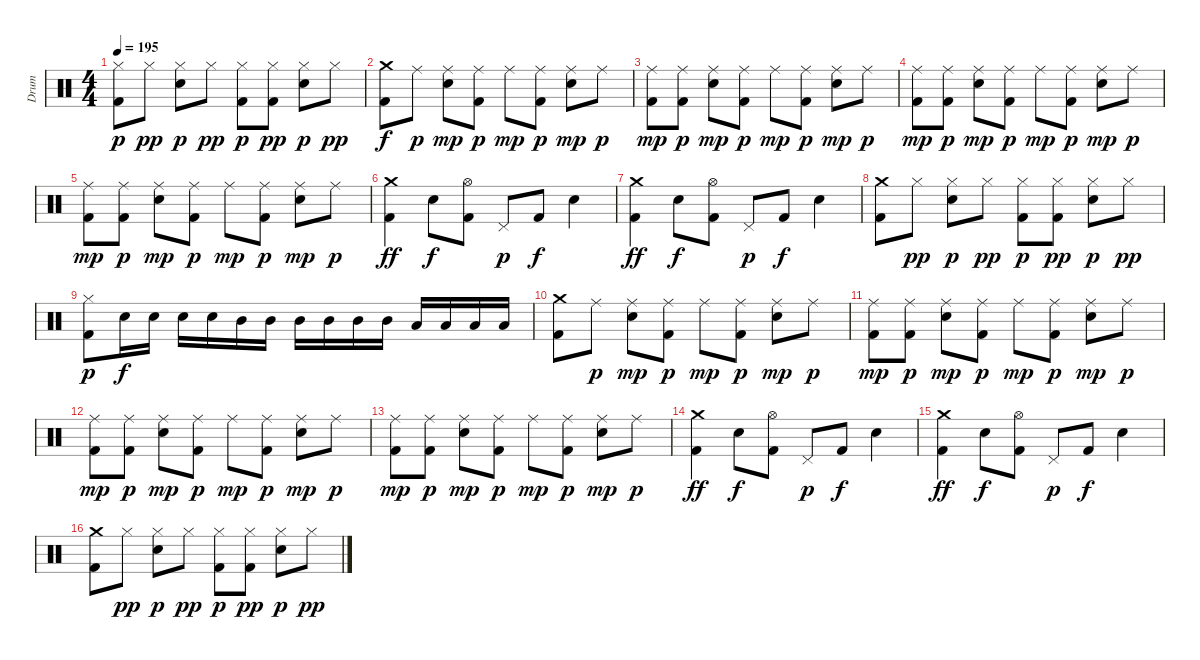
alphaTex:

\track ("Drum" "Drum") {instrument percussion}
\staff {score}
\articulation defaults
\ts (4 4)
\tempo 195
\clef neutral
\ks c
("Hi-Hat (closed)" "Kick (hit) 2").8{dy p} "Hi-Hat (closed)".8{dy pp} ("Hi-Hat (closed)" "Electric Snare (hit)").8{dy p} "Hi-Hat (closed)".8{dy pp} ("Hi-Hat (closed)" "Kick (hit) 2").8{dy p} ("Hi-Hat (closed)" "Kick (hit) 2").8{dy pp} ("Hi-Hat (closed)" "Electric Snare (hit)").8{dy p} "Hi-Hat (closed)".8{dy pp} |
("Crash medium (hit)" "Kick (hit) 2").8{dy f} "Ride (middle)".8{dy p} ("Ride (middle)" "Electric Snare (hit)").8{dy mp} ("Ride (middle)" "Kick (hit) 2").8{dy p} "Ride (middle)".8{dy mp} ("Ride (middle)" "Kick (hit) 2").8{dy p} ("Ride (middle)" "Electric Snare (hit)").8{dy mp} "Ride (middle)".8{dy p} |
("Ride (middle)" "Kick (hit) 2").8{dy mp} ("Ride (middle)" "Kick (hit) 2").8{dy p} ("Ride (middle)" "Electric Snare (hit)").8{dy mp} ("Ride (middle)" "Kick (hit) 2").8{dy p} "Ride (middle)".8{dy mp} ("Ride (middle)" "Kick (hit) 2").8{dy p} ("Ride (middle)" "Electric Snare (hit)").8{dy mp} "Ride (middle)".8{dy p} |
("Ride (middle)" "Kick (hit) 2").8{dy mp} ("Ride (middle)" "Kick (hit) 2").8{dy p} ("Ride (middle)" "Electric Snare (hit)").8{dy mp} ("Ride (middle)" "Kick (hit) 2").8{dy p} "Ride (middle)".8{dy mp} ("Ride (middle)" "Kick (hit) 2").8{dy p} ("Ride (middle)" "Electric Snare (hit)").8{dy mp} "Ride (middle)".8{dy p} |
("Ride (middle)" "Kick (hit) 2").8{dy mp} ("Ride (middle)" "Kick (hit) 2").8{dy p} ("Ride (middle)" "Electric Snare (hit)").8{dy mp} ("Ride (middle)" "Kick (hit) 2").8{dy p} "Ride (middle)".8{dy mp} ("Ride (middle)" "Kick (hit) 2").8{dy p} ("Ride (middle)" "Electric Snare (hit)").8{dy mp} "Ride (middle)".8{dy p} |
("Crash medium (hit)" "Kick (hit) 2").4{dy ff} "Electric Snare (hit)".8{dy f} ("Hi-Hat (open)" "Kick (hit) 2").8 "Pedal Hi-Hat (hit)".8{dy p} "Kick (hit) 2".8{dy f} "Electric Snare (hit)".4 |
("Crash medium (hit)" "Kick (hit) 2").4{dy ff} "Electric Snare (hit)".8{dy f} ("Hi-Hat (open)" "Kick (hit) 2").8 "Pedal Hi-Hat (hit)".8{dy p} "Kick (hit) 2".8{dy f} "Electric Snare (hit)".4 |
("Crash medium (hit)" "Kick (hit) 2").8 "Hi-Hat (closed)".8{dy pp} ("Hi-Hat (closed)" "Electric Snare (hit)").8{dy p} "Hi-Hat (closed)".8{dy pp} ("Hi-Hat (closed)" "Kick (hit) 2").8{dy p} ("Hi-Hat (closed)" "Kick (hit) 2").8{dy pp} ("Hi-Hat (closed)" "Electric Snare (hit)").8{dy p} "Hi-Hat (closed)".8{dy pp} |
("Hi-Hat (closed)" "Kick (hit) 2").8{dy p} "Electric Snare (hit)".16{dy f} "Electric Snare (hit)".16 "Electric Snare (hit)".16 "Electric Snare (hit)".16 "Mid Tom (hit)".16 "Mid Tom (hit)".16 "Mid Tom (hit)".16 "Mid Tom (hit)".16 "Mid Tom (hit)".16 "Mid Tom (hit)".16 "Low Tom (hit)".16 "Low Tom (hit)".16 "Low Tom (hit)".16 "Low Tom (hit)".16 |
("Crash medium (hit)" "Kick (hit) 2").8 "Ride (middle)".8{dy p} ("Ride (middle)" "Electric Snare (hit)").8{dy mp} ("Ride (middle)" "Kick (hit) 2").8{dy p} "Ride (middle)".8{dy mp} ("Ride (middle)" "Kick (hit) 2").8{dy p} ("Ride (middle)" "Electric Snare (hit)").8{dy mp} "Ride (middle)".8{dy p} |
("Ride (middle)" "Kick (hit) 2").8{dy mp} ("Ride (middle)" "Kick (hit) 2").8{dy p} ("Ride (middle)" "Electric Snare (hit)").8{dy mp} ("Ride (middle)" "Kick (hit) 2").8{dy p} "Ride (middle)".8{dy mp} ("Ride (middle)" "Kick (hit) 2").8{dy p} ("Ride (middle)" "Electric Snare (hit)").8{dy mp} "Ride (middle)".8{dy p} |
("Ride (middle)" "Kick (hit) 2").8{dy mp} ("Ride (middle)" "Kick (hit) 2").8{dy p} ("Ride (middle)" "Electric Snare (hit)").8{dy mp} ("Ride (middle)" "Kick (hit) 2").8{dy p} "Ride (middle)".8{dy mp} ("Ride (middle)" "Kick (hit) 2").8{dy p} ("Ride (middle)" "Electric Snare (hit)").8{dy mp} "Ride (middle)".8{dy p} |
("Ride (middle)" "Kick (hit) 2").8{dy mp} ("Ride (middle)" "Kick (hit) 2").8{dy p} ("Ride (middle)" "Electric Snare (hit)").8{dy mp} ("Ride (middle)" "Kick (hit) 2").8{dy p} "Ride (middle)".8{dy mp} ("Ride (middle)" "Kick (hit) 2").8{dy p} ("Ride (middle)" "Electric Snare (hit)").8{dy mp} "Ride (middle)".8{dy p} |
("Crash medium (hit)" "Kick (hit) 2").4{dy ff} "Electric Snare (hit)".8{dy f} ("Hi-Hat (open)" "Kick (hit) 2").8 "Pedal Hi-Hat (hit)".8{dy p} "Kick (hit) 2".8{dy f} "Electric Snare (hit)".4 |
("Crash medium (hit)" "Kick (hit) 2").4{dy ff} "Electric Snare (hit)".8{dy f} ("Hi-Hat (open)" "Kick (hit) 2").8 "Pedal Hi-Hat (hit)".8{dy p} "Kick (hit) 2".8{dy f} "Electric Snare (hit)".4 |
("Crash medium (hit)" "Kick (hit) 2").8 "Hi-Hat (closed)".8{dy pp} ("Hi-Hat (closed)" "Electric Snare (hit)").8{dy p} "Hi-Hat (closed)".8{dy pp} ("Hi-Hat (closed)" "Kick (hit) 2").8{dy p} ("Hi-Hat (closed)" "Kick (hit) 2").8{dy pp} ("Hi-Hat (closed)" "Electric Snare (hit)").8{dy p} "Hi-Hat (closed)".8{dy pp}
